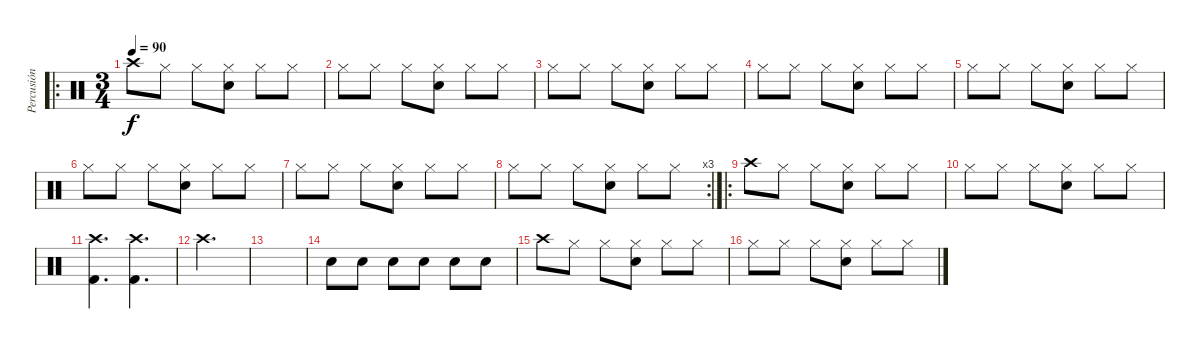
\track ("Percusión" "Percusión") {instrument percussion}
\staff {score}
\articulation defaults
\ro
\ts (3 4)
\tempo 90
\clef neutral
\ks c "Crash high (hit)".8{dy f} "Hi-Hat (closed)".8 "Hi-Hat (closed)".8
("Electric Snare (hit)" "Hi-Hat (closed)").8 "Hi-Hat (closed)".8 "Hi-Hat (closed)".8 |
"Hi-Hat (closed)".8 "Hi-Hat (closed)".8 "Hi-Hat (closed)".8 ("Electric Snare (hit)" "Hi-Hat (closed)").8 "Hi-Hat (closed)".8 "Hi-Hat (closed)".8 |
"Hi-Hat (closed)".8 "Hi-Hat (closed)".8 "Hi-Hat (closed)".8 ("Electric Snare (hit)" "Hi-Hat (closed)").8 "Hi-Hat (closed)".8 "Hi-Hat (closed)".8 |
"Hi-Hat (closed)".8 "Hi-Hat (closed)".8 "Hi-Hat (closed)".8 ("Electric Snare (hit)" "Hi-Hat (closed)").8 "Hi-Hat (closed)".8 "Hi-Hat (closed)".8 |
"Hi-Hat (closed)".8 "Hi-Hat (closed)".8 "Hi-Hat (closed)".8 ("Electric Snare (hit)" "Hi-Hat (closed)").8 "Hi-Hat (closed)".8 "Hi-Hat (closed)".8 |
"Hi-Hat (closed)".8 "Hi-Hat (closed)".8 "Hi-Hat (closed)".8 ("Electric Snare (hit)" "Hi-Hat (closed)").8 "Hi-Hat (closed)".8 "Hi-Hat (closed)".8 |
"Hi-Hat (closed)".8 "Hi-Hat (closed)".8 "Hi-Hat (closed)".8 ("Electric Snare (hit)" "Hi-Hat (closed)").8 "Hi-Hat (closed)".8 "Hi-Hat (closed)".8 |
\rc 3 "Hi-Hat (closed)".8 "Hi-Hat (closed)".8 "Hi-Hat (closed)".8
("Electric Snare (hit)" "Hi-Hat (closed)").8 "Hi-Hat (closed)".8 "Hi-Hat (closed)".8 |
\ro "Crash high (hit)".8 "Hi-Hat (closed)".8 "Hi-Hat (closed)".8
("Electric Snare (hit)" "Hi-Hat (closed)").8 "Hi-Hat (closed)".8 "Hi-Hat (closed)".8 |
"Hi-Hat (closed)".8 "Hi-Hat (closed)".8 "Hi-Hat (closed)".8 ("Electric Snare (hit)" "Hi-Hat (closed)").8 "Hi-Hat (closed)".8 "Hi-Hat (closed)".8 |
("Crash high (hit)" "Kick (hit) 2").4{d} ("Crash high (hit)" "Kick (hit) 2").4{d} |
"Crash high (hit)".2{d} |
|
"Electric Snare (hit)".8 "Electric Snare (hit)".8 "Electric Snare (hit)".8 "Electric Snare (hit)".8 "Electric Snare (hit)".8 "Electric Snare (hit)".8 |
"Crash high (hit)".8 "Hi-Hat (closed)".8 "Hi-Hat (closed)".8 ("Electric Snare (hit)" "Hi-Hat (closed)").8 "Hi-Hat (closed)".8 "Hi-Hat (closed)".8 |
"Hi-Hat (closed)".8 "Hi-Hat (closed)".8 "Hi-Hat (closed)".8 ("Electric Snare (hit)" "Hi-Hat (closed)").8 "Hi-Hat (closed)".8 "Hi-Hat (closed)".8
